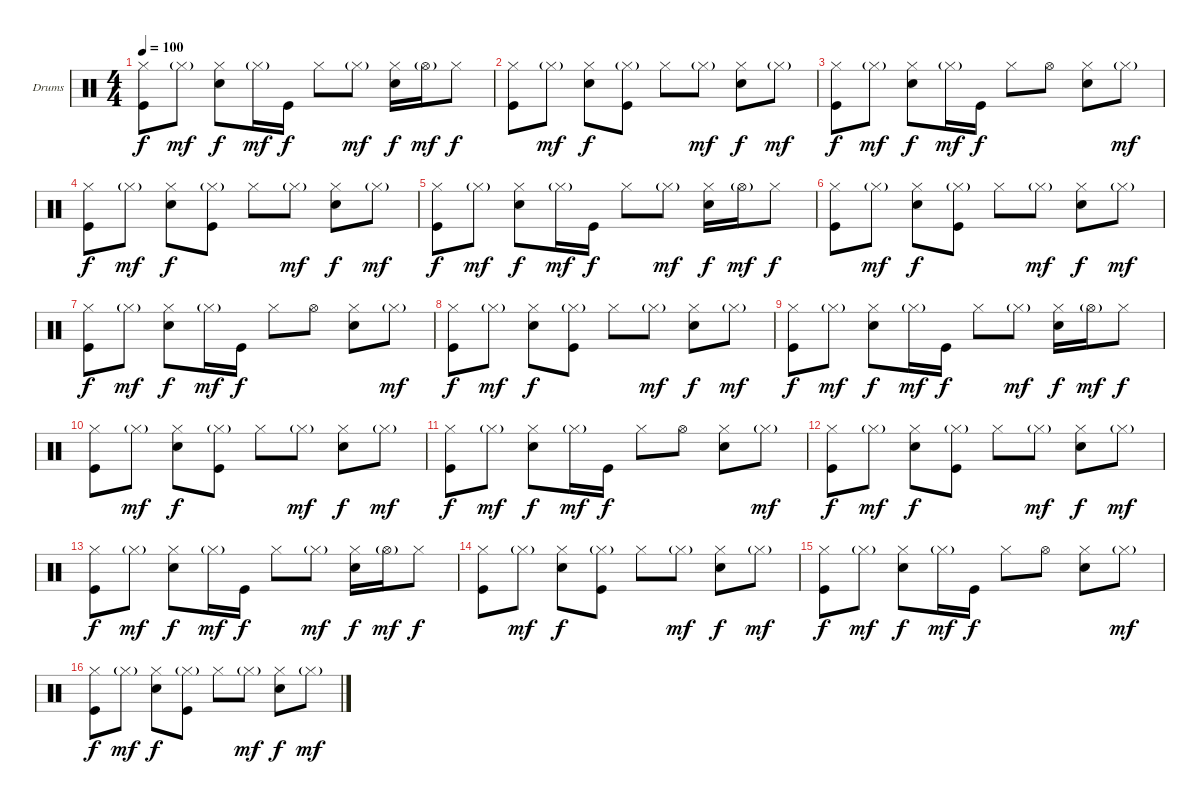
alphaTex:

\bracketExtendMode groupsimilarinstruments
\firstSystemTrackNameOrientation horizontal
\otherSystemsTrackNameOrientation horizontal
\track ("Drumkit" "Drums") {instrument percussion}
\staff {score}
\articulation defaults
\ts (4 4)
\tempo 100
\clef neutral
\ks c
("Hi-Hat (closed)" "Kick (hit)").8{dy f} "Hi-Hat (closed)"{g}.8{dy mf} ("Hi-Hat (closed)" "Snare (hit) 2").8{dy f} "Hi-Hat (closed)"{g}.16{dy mf} "Kick (hit)".16{dy f} "Hi-Hat (closed)".8 "Hi-Hat (closed)"{g}.8{dy mf} ("Hi-Hat (closed)" "Snare (hit) 2").16{dy f} "Hi-Hat (open)"{g}.16{dy mf} "Hi-Hat (closed)".8{dy f} |
("Hi-Hat (closed)" "Kick (hit)").8 "Hi-Hat (closed)"{g}.8{dy mf} ("Hi-Hat (closed)" "Snare (hit) 2").8{dy f} ("Hi-Hat (closed)"{g} "Kick (hit)").8 "Hi-Hat (closed)".8 "Hi-Hat (closed)"{g}.8{dy mf} ("Hi-Hat (closed)" "Snare (hit) 2").8{dy f} "Hi-Hat (closed)"{g}.8{dy mf} |
("Hi-Hat (closed)" "Kick (hit)").8{dy f} "Hi-Hat (closed)"{g}.8{dy mf} ("Hi-Hat (closed)" "Snare (hit) 2").8{dy f} "Hi-Hat (closed)"{g}.16{dy mf} "Kick (hit)".16{dy f} "Hi-Hat (closed)".8 "Hi-Hat (open)".8 ("Hi-Hat (closed)" "Snare (hit) 2").8 "Hi-Hat (closed)"{g}.8{dy mf} |
("Hi-Hat (closed)" "Kick (hit)").8{dy f} "Hi-Hat (closed)"{g}.8{dy mf} ("Hi-Hat (closed)" "Snare (hit) 2").8{dy f} ("Hi-Hat (closed)"{g} "Kick (hit)").8 "Hi-Hat (closed)".8 "Hi-Hat (closed)"{g}.8{dy mf} ("Hi-Hat (closed)" "Snare (hit) 2").8{dy f} "Hi-Hat (closed)"{g}.8{dy mf} |
("Hi-Hat (closed)" "Kick (hit)").8{dy f} "Hi-Hat (closed)"{g}.8{dy mf} ("Hi-Hat (closed)" "Snare (hit) 2").8{dy f} "Hi-Hat (closed)"{g}.16{dy mf} "Kick (hit)".16{dy f} "Hi-Hat (closed)".8 "Hi-Hat (closed)"{g}.8{dy mf} ("Hi-Hat (closed)" "Snare (hit) 2").16{dy f} "Hi-Hat (open)"{g}.16{dy mf} "Hi-Hat (closed)".8{dy f} |
("Hi-Hat (closed)" "Kick (hit)").8 "Hi-Hat (closed)"{g}.8{dy mf} ("Hi-Hat (closed)" "Snare (hit) 2").8{dy f} ("Hi-Hat (closed)"{g} "Kick (hit)").8 "Hi-Hat (closed)".8 "Hi-Hat (closed)"{g}.8{dy mf} ("Hi-Hat (closed)" "Snare (hit) 2").8{dy f} "Hi-Hat (closed)"{g}.8{dy mf} |
("Hi-Hat (closed)" "Kick (hit)").8{dy f} "Hi-Hat (closed)"{g}.8{dy mf} ("Hi-Hat (closed)" "Snare (hit) 2").8{dy f} "Hi-Hat (closed)"{g}.16{dy mf} "Kick (hit)".16{dy f} "Hi-Hat (closed)".8 "Hi-Hat (open)".8 ("Hi-Hat (closed)" "Snare (hit) 2").8 "Hi-Hat (closed)"{g}.8{dy mf} |
("Hi-Hat (closed)" "Kick (hit)").8{dy f} "Hi-Hat (closed)"{g}.8{dy mf} ("Hi-Hat (closed)" "Snare (hit) 2").8{dy f} ("Hi-Hat (closed)"{g} "Kick (hit)").8 "Hi-Hat (closed)".8 "Hi-Hat (closed)"{g}.8{dy mf} ("Hi-Hat (closed)" "Snare (hit) 2").8{dy f} "Hi-Hat (closed)"{g}.8{dy mf} |
("Hi-Hat (closed)" "Kick (hit)").8{dy f} "Hi-Hat (closed)"{g}.8{dy mf} ("Hi-Hat (closed)" "Snare (hit) 2").8{dy f} "Hi-Hat (closed)"{g}.16{dy mf} "Kick (hit)".16{dy f} "Hi-Hat (closed)".8 "Hi-Hat (closed)"{g}.8{dy mf} ("Hi-Hat (closed)" "Snare (hit) 2").16{dy f} "Hi-Hat (open)"{g}.16{dy mf} "Hi-Hat (closed)".8{dy f} |
("Hi-Hat (closed)" "Kick (hit)").8 "Hi-Hat (closed)"{g}.8{dy mf} ("Hi-Hat (closed)" "Snare (hit) 2").8{dy f} ("Hi-Hat (closed)"{g} "Kick (hit)").8 "Hi-Hat (closed)".8 "Hi-Hat (closed)"{g}.8{dy mf} ("Hi-Hat (closed)" "Snare (hit) 2").8{dy f} "Hi-Hat (closed)"{g}.8{dy mf} |
("Hi-Hat (closed)" "Kick (hit)").8{dy f} "Hi-Hat (closed)"{g}.8{dy mf} ("Hi-Hat (closed)" "Snare (hit) 2").8{dy f} "Hi-Hat (closed)"{g}.16{dy mf} "Kick (hit)".16{dy f} "Hi-Hat (closed)".8 "Hi-Hat (open)".8 ("Hi-Hat (closed)" "Snare (hit) 2").8 "Hi-Hat (closed)"{g}.8{dy mf} |
("Hi-Hat (closed)" "Kick (hit)").8{dy f} "Hi-Hat (closed)"{g}.8{dy mf} ("Hi-Hat (closed)" "Snare (hit) 2").8{dy f} ("Hi-Hat (closed)"{g} "Kick (hit)").8 "Hi-Hat (closed)".8 "Hi-Hat (closed)"{g}.8{dy mf} ("Hi-Hat (closed)" "Snare (hit) 2").8{dy f} "Hi-Hat (closed)"{g}.8{dy mf} |
("Hi-Hat (closed)" "Kick (hit)").8{dy f} "Hi-Hat (closed)"{g}.8{dy mf} ("Hi-Hat (closed)" "Snare (hit) 2").8{dy f} "Hi-Hat (closed)"{g}.16{dy mf} "Kick (hit)".16{dy f} "Hi-Hat (closed)".8 "Hi-Hat (closed)"{g}.8{dy mf} ("Hi-Hat (closed)" "Snare (hit) 2").16{dy f} "Hi-Hat (open)"{g}.16{dy mf} "Hi-Hat (closed)".8{dy f} |
("Hi-Hat (closed)" "Kick (hit)").8 "Hi-Hat (closed)"{g}.8{dy mf} ("Hi-Hat (closed)" "Snare (hit) 2").8{dy f} ("Hi-Hat (closed)"{g} "Kick (hit)").8 "Hi-Hat (closed)".8 "Hi-Hat (closed)"{g}.8{dy mf} ("Hi-Hat (closed)" "Snare (hit) 2").8{dy f} "Hi-Hat (closed)"{g}.8{dy mf} |
("Hi-Hat (closed)" "Kick (hit)").8{dy f} "Hi-Hat (closed)"{g}.8{dy mf} ("Hi-Hat (closed)" "Snare (hit) 2").8{dy f} "Hi-Hat (closed)"{g}.16{dy mf} "Kick (hit)".16{dy f} "Hi-Hat (closed)".8 "Hi-Hat (open)".8 ("Hi-Hat (closed)" "Snare (hit) 2").8 "Hi-Hat (closed)"{g}.8{dy mf} |
("Hi-Hat (closed)" "Kick (hit)").8{dy f} "Hi-Hat (closed)"{g}.8{dy mf} ("Hi-Hat (closed)" "Snare (hit) 2").8{dy f} ("Hi-Hat (closed)"{g} "Kick (hit)").8 "Hi-Hat (closed)".8 "Hi-Hat (closed)"{g}.8{dy mf} ("Hi-Hat (closed)" "Snare (hit) 2").8{dy f} "Hi-Hat (closed)"{g}.8{dy mf}
